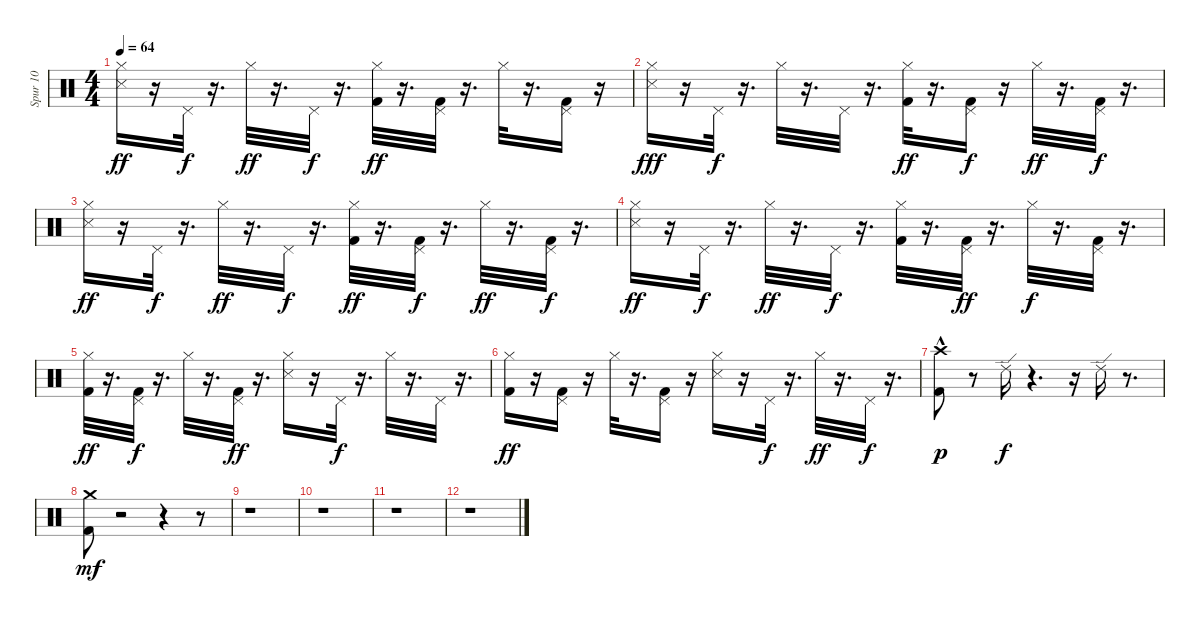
\track ("Spur 10" "Spur 10") {instrument percussion}
\staff {score}
\articulation defaults
\ts (4 4)
\tempo 64
\clef neutral
\ks c
("Hi-Hat (closed)" "Snare (side stick) 3").16{dy ff} r.16 "Pedal Hi-Hat (hit)".32{dy f} r.16{d} "Hi-Hat (closed)".32{dy ff} r.16{d} "Pedal Hi-Hat (hit)".32{dy f} r.16{d} ("Hi-Hat (closed)" "Kick (hit) 2").32{dy ff} r.16{d} ("Pedal Hi-Hat (hit)" "Kick (hit) 2").32 r.16{d} "Hi-Hat (closed)".32 r.16{d} ("Pedal Hi-Hat (hit)" "Kick (hit) 2").16 r.16 |
("Hi-Hat (closed)" "Snare (side stick) 3").16{dy fff} r.16 "Pedal Hi-Hat (hit)".32{dy f} r.16{d} "Hi-Hat (closed)".32 r.16{d} "Pedal Hi-Hat (hit)".32 r.16{d} ("Hi-Hat (closed)" "Kick (hit) 2").32{dy ff} r.16{d} ("Pedal Hi-Hat (hit)" "Kick (hit) 2").16{dy f} r.16 "Hi-Hat (closed)".32{dy ff} r.16{d} ("Pedal Hi-Hat (hit)" "Kick (hit) 2").32{dy f} r.16{d} |
("Hi-Hat (closed)" "Snare (side stick) 3").16{dy ff} r.16 "Pedal Hi-Hat (hit)".32{dy f} r.16{d} "Hi-Hat (closed)".32{dy ff} r.16{d} "Pedal Hi-Hat (hit)".32{dy f} r.16{d} ("Hi-Hat (closed)" "Kick (hit) 2").32{dy ff} r.16{d} ("Pedal Hi-Hat (hit)" "Kick (hit) 2").32{dy f} r.16{d} "Hi-Hat (closed)".32{dy ff} r.16{d} ("Pedal Hi-Hat (hit)" "Kick (hit) 2").32{dy f} r.16{d} |
("Hi-Hat (closed)" "Snare (side stick) 3").16{dy ff} r.16 "Pedal Hi-Hat (hit)".32{dy f} r.16{d} "Hi-Hat (closed)".32{dy ff} r.16{d} "Pedal Hi-Hat (hit)".32{dy f} r.16{d} ("Hi-Hat (closed)" "Kick (hit) 2").32 r.16{d} ("Pedal Hi-Hat (hit)" "Kick (hit) 2").32{dy ff} r.16{d} "Hi-Hat (closed)".32{dy f} r.16{d} ("Pedal Hi-Hat (hit)" "Kick (hit) 2").32 r.16{d} |
("Hi-Hat (closed)" "Kick (hit) 2").32{dy ff} r.16{d} ("Pedal Hi-Hat (hit)" "Kick (hit) 2").32{dy f} r.16{d} "Hi-Hat (closed)".32 r.16{d} ("Pedal Hi-Hat (hit)" "Kick (hit) 2").32{dy ff} r.16{d} ("Hi-Hat (closed)" "Snare (side stick) 3").16 r.16 "Pedal Hi-Hat (hit)".32{dy f} r.16{d} "Hi-Hat (closed)".32 r.16{d} "Pedal Hi-Hat (hit)".32 r.16{d} |
("Hi-Hat (closed)" "Kick (hit) 2").16{dy ff} r.16 ("Pedal Hi-Hat (hit)" "Kick (hit) 2").16 r.16 "Hi-Hat (closed)".32 r.16{d} ("Pedal Hi-Hat (hit)" "Kick (hit) 2").16 r.16 ("Hi-Hat (closed)" "Snare (side stick) 3").16 r.16 "Pedal Hi-Hat (hit)".32{dy f} r.16{d} "Hi-Hat (closed)".32{dy ff} r.16{d} "Pedal Hi-Hat (hit)".32{dy f} r.16{d} |
("Crash high (hit)"{hac} "Kick (hit) 2").8{dy p} r.8 "Ride (edge) 2".16{dy f} r.4{d} r.16 "Ride (edge) 2".16 r.8{d} |
("Crash medium (hit)" "Kick (hit) 2").8{dy mf} r.2 r.4 r.8 |
r.1 |
r.1 |
r.1 |
r.1
